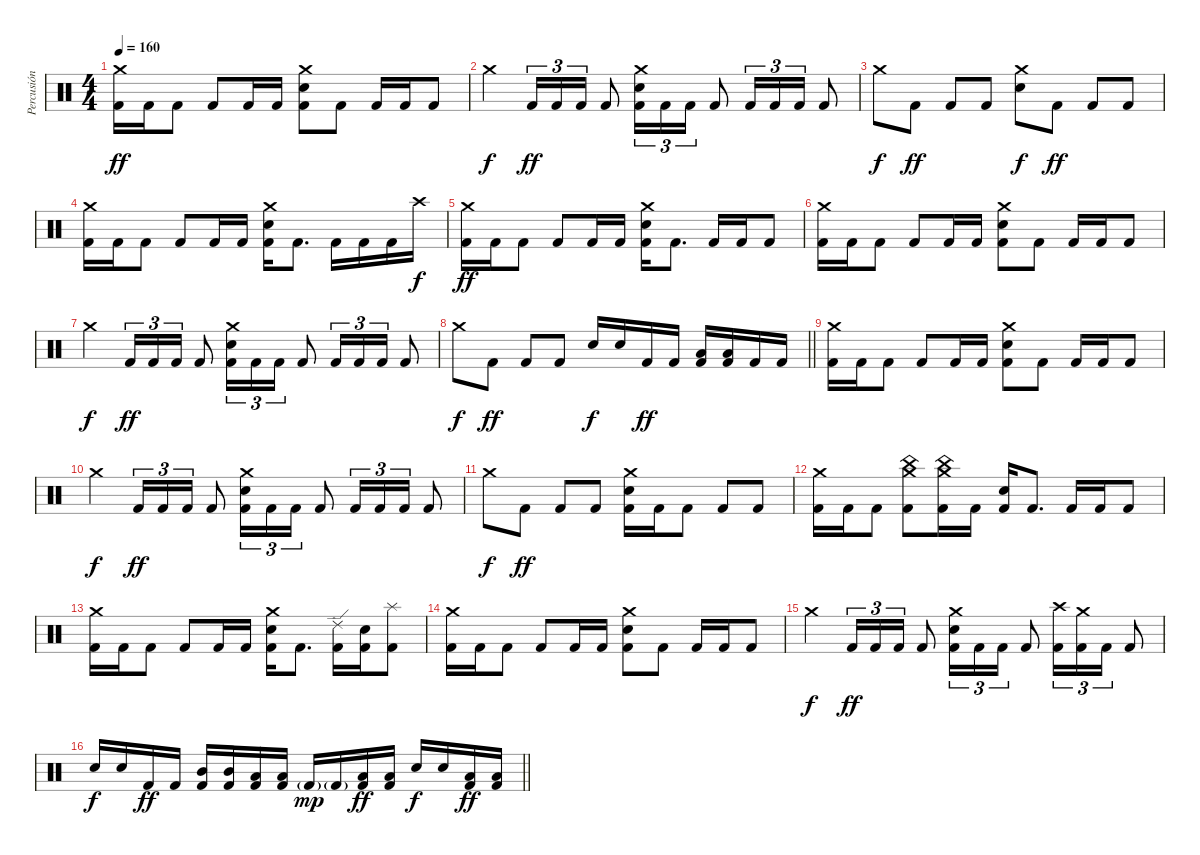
\track ("Percusión" "Percusión") {instrument percussion}
\staff {score}
\articulation defaults
\ts (4 4)
\tempo 160
\clef neutral
\ks c
("Crash medium (hit)" "Kick (hit) 2").16{dy ff} "Kick (hit) 2".16 "Kick (hit) 2".8 "Kick (hit) 2".8 "Kick (hit) 2".16 "Kick (hit) 2".16 ("Crash medium (hit)" "Snare (hit) 2" "Kick (hit) 2").8 "Kick (hit) 2".8 "Kick (hit) 2".16 "Kick (hit) 2".16 "Kick (hit) 2".8 |
"Crash medium (hit)".4{dy f} "Kick (hit) 2".16{tu (3 2) dy ff} "Kick (hit) 2".16{tu (3 2)} "Kick (hit) 2".16{tu (3 2)} "Kick (hit) 2".8 ("Crash medium (hit)" "Snare (hit) 2" "Kick (hit) 2").16{tu (3 2)} "Kick (hit) 2".16{tu (3 2)} "Kick (hit) 2".16{tu (3 2)} "Kick (hit) 2".8 "Kick (hit) 2".16{tu (3 2)} "Kick (hit) 2".16{tu (3 2)} "Kick (hit) 2".16{tu (3 2)} "Kick (hit) 2".8 |
"Crash medium (hit)".8{dy f} "Kick (hit) 2".8{dy ff} "Kick (hit) 2".8 "Kick (hit) 2".8 ("Crash medium (hit)" "Snare (hit) 2").8{dy f} "Kick (hit) 2".8{dy ff} "Kick (hit) 2".8 "Kick (hit) 2".8 |
("Crash medium (hit)" "Kick (hit) 2").16 "Kick (hit) 2".16 "Kick (hit) 2".8 "Kick (hit) 2".8 "Kick (hit) 2".16 "Kick (hit) 2".16 ("Crash medium (hit)" "Snare (hit) 2" "Kick (hit) 2").16 "Kick (hit) 2".8{d} "Kick (hit) 2".16 "Kick (hit) 2".16 "Kick (hit) 2".16 "Crash high (hit)".16{dy f} |
("Crash medium (hit)" "Kick (hit) 2").16{dy ff} "Kick (hit) 2".16 "Kick (hit) 2".8 "Kick (hit) 2".8 "Kick (hit) 2".16 "Kick (hit) 2".16 ("Crash medium (hit)" "Snare (hit) 2" "Kick (hit) 2").16 "Kick (hit) 2".8{d} "Kick (hit) 2".16 "Kick (hit) 2".16 "Kick (hit) 2".8 |
("Crash medium (hit)" "Kick (hit) 2").16 "Kick (hit) 2".16 "Kick (hit) 2".8 "Kick (hit) 2".8 "Kick (hit) 2".16 "Kick (hit) 2".16 ("Crash medium (hit)" "Snare (hit) 2" "Kick (hit) 2").8 "Kick (hit) 2".8 "Kick (hit) 2".16 "Kick (hit) 2".16 "Kick (hit) 2".8 |
"Crash medium (hit)".4{dy f} "Kick (hit) 2".16{tu (3 2) dy ff} "Kick (hit) 2".16{tu (3 2)} "Kick (hit) 2".16{tu (3 2)} "Kick (hit) 2".8 ("Crash medium (hit)" "Snare (hit) 2" "Kick (hit) 2").16{tu (3 2)} "Kick (hit) 2".16{tu (3 2)} "Kick (hit) 2".16{tu (3 2)} "Kick (hit) 2".8 "Kick (hit) 2".16{tu (3 2)} "Kick (hit) 2".16{tu (3 2)} "Kick (hit) 2".16{tu (3 2)} "Kick (hit) 2".8 |
\barLineRight lightlight "Crash medium (hit)".8{dy f} "Kick (hit) 2".8{dy ff} "Kick (hit) 2".8 "Kick (hit) 2".8 "Snare (hit) 2".16{dy f} "Snare (hit) 2".16 "Kick (hit) 2".16{dy ff} "Kick (hit) 2".16
("Low Tom (hit)" "Kick (hit) 2").16 ("Low Tom (hit)" "Kick (hit) 2").16 "Kick (hit) 2".16 "Kick (hit) 2".16 |
("Crash medium (hit)" "Kick (hit) 2").16 "Kick (hit) 2".16 "Kick (hit) 2".8 "Kick (hit) 2".8 "Kick (hit) 2".16 "Kick (hit) 2".16 ("Crash medium (hit)" "Snare (hit) 2" "Kick (hit) 2").8 "Kick (hit) 2".8 "Kick (hit) 2".16 "Kick (hit) 2".16 "Kick (hit) 2".8 |
"Crash medium (hit)".4{dy f} "Kick (hit) 2".16{tu (3 2) dy ff} "Kick (hit) 2".16{tu (3 2)} "Kick (hit) 2".16{tu (3 2)} "Kick (hit) 2".8 ("Crash medium (hit)" "Snare (hit) 2" "Kick (hit) 2").16{tu (3 2)} "Kick (hit) 2".16{tu (3 2)} "Kick (hit) 2".16{tu (3 2)} "Kick (hit) 2".8 "Kick (hit) 2".16{tu (3 2)} "Kick (hit) 2".16{tu (3 2)} "Kick (hit) 2".16{tu (3 2)} "Kick (hit) 2".8 |
"Crash medium (hit)".8{dy f} "Kick (hit) 2".8{dy ff} "Kick (hit) 2".8 "Kick (hit) 2".8 ("Crash medium (hit)" "Snare (hit) 2" "Kick (hit) 2").16 "Kick (hit) 2".16 "Kick (hit) 2".8 "Kick (hit) 2".8 "Kick (hit) 2".8 |
("Crash medium (hit)" "Kick (hit) 2").16 "Kick (hit) 2".16 "Kick (hit) 2".8 ("Crash medium (hit)" "China (hit)" "Kick (hit) 2").8 ("Crash medium (hit)" "China (hit)" "Kick (hit) 2").16 "Kick (hit) 2".16 ("Snare (hit) 2" "Kick (hit) 2").16 "Kick (hit) 2".8{d} "Kick (hit) 2".16 "Kick (hit) 2".16 "Kick (hit) 2".8 |
("Crash medium (hit)" "Kick (hit) 2").16 "Kick (hit) 2".16 "Kick (hit) 2".8 "Kick (hit) 2".8 "Kick (hit) 2".16 "Kick (hit) 2".16 ("Crash medium (hit)" "Snare (hit) 2" "Kick (hit) 2").16 "Kick (hit) 2".8{d} ("Ride (edge) 2" "Kick (hit) 2").16 ("Snare (hit) 2" "Kick (hit) 2").16 ("Splash (hit)" "Kick (hit) 2").8 |
("Crash medium (hit)" "Kick (hit) 2").16 "Kick (hit) 2".16 "Kick (hit) 2".8 "Kick (hit) 2".8 "Kick (hit) 2".16 "Kick (hit) 2".16 ("Crash medium (hit)" "Snare (hit) 2" "Kick (hit) 2").8 "Kick (hit) 2".8 "Kick (hit) 2".16 "Kick (hit) 2".16 "Kick (hit) 2".8 |
"Crash medium (hit)".4{dy f} "Kick (hit) 2".16{tu (3 2) dy ff} "Kick (hit) 2".16{tu (3 2)} "Kick (hit) 2".16{tu (3 2)} "Kick (hit) 2".8 ("Crash medium (hit)" "Snare (hit) 2" "Kick (hit) 2").16{tu (3 2)} "Kick (hit) 2".16{tu (3 2)} "Kick (hit) 2".16{tu (3 2)} "Kick (hit) 2".8 ("Crash high (hit)" "Kick (hit) 2").16{tu (3 2)} ("Crash medium (hit)" "Kick (hit) 2").16{tu (3 2)} "Kick (hit) 2".16{tu (3 2)} "Kick (hit) 2".8 |
\barLineRight lightlight "Snare (hit) 2".16{dy f} "Snare (hit) 2".16 "Kick (hit) 2".16{dy ff} "Kick (hit) 2".16
("Mid Tom (hit)" "Kick (hit) 2").16 ("Mid Tom (hit)" "Kick (hit) 2").16 ("Low Tom (hit)" "Kick (hit) 2").16 ("Low Tom (hit)" "Kick (hit) 2").16 "Kick (hit) 2"{g}.16{dy mp} "Kick (hit) 2"{g}.16 ("Low Tom (hit)" "Kick (hit) 2").16{dy ff} ("Low Tom (hit)" "Kick (hit) 2").16 "Snare (hit) 2".16{dy f} "Snare (hit) 2".16 ("Low Tom (hit)" "Kick (hit) 2").16{dy ff} ("Low Tom (hit)" "Kick (hit) 2").16
